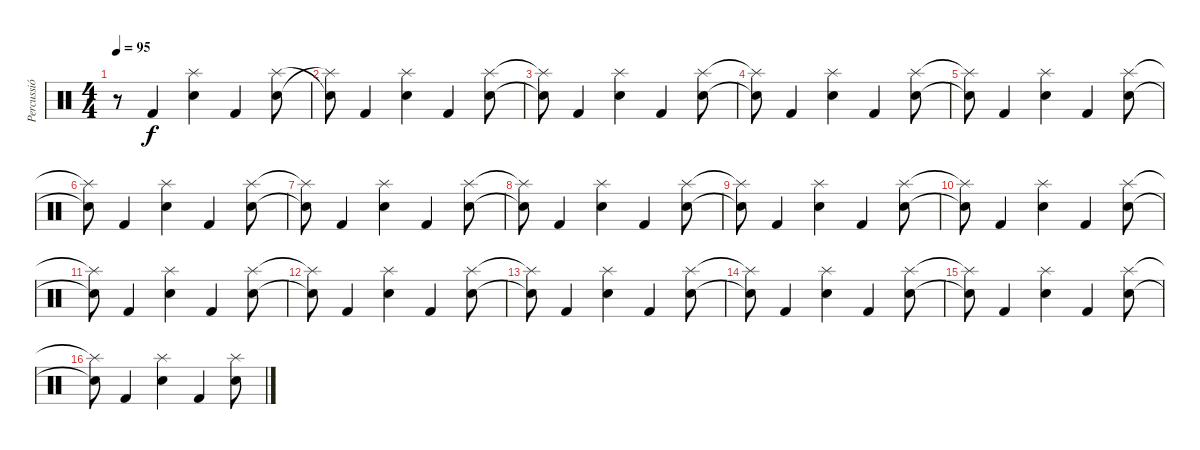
\track ("Percussió" "Percussió") {instrument percussion}
\staff {score}
\articulation defaults
\ts (4 4)
\tempo 95
\clef neutral
\ks c
r.8{dy f} "Kick (hit) 2".4 ("Snare (hit) 2" "Splash (hit)").4 "Kick (hit) 2".4 ("Snare (hit) 2" "Splash (hit)").8 |
("Splash (hit)"{t} "Snare (hit) 2"{t}).8 "Kick (hit) 2".4 ("Snare (hit) 2" "Splash (hit)").4 "Kick (hit) 2".4 ("Splash (hit)" "Snare (hit) 2").8 |
("Splash (hit)"{t} "Snare (hit) 2"{t}).8 "Kick (hit) 2".4 ("Snare (hit) 2" "Splash (hit)").4 "Kick (hit) 2".4 ("Splash (hit)" "Snare (hit) 2").8 |
("Splash (hit)"{t} "Snare (hit) 2"{t}).8 "Kick (hit) 2".4 ("Snare (hit) 2" "Splash (hit)").4 "Kick (hit) 2".4 ("Splash (hit)" "Snare (hit) 2").8 |
("Splash (hit)"{t} "Snare (hit) 2"{t}).8 "Kick (hit) 2".4 ("Snare (hit) 2" "Splash (hit)").4 "Kick (hit) 2".4 ("Splash (hit)" "Snare (hit) 2").8 |
("Splash (hit)"{t} "Snare (hit) 2"{t}).8 "Kick (hit) 2".4 ("Snare (hit) 2" "Splash (hit)").4 "Kick (hit) 2".4 ("Splash (hit)" "Snare (hit) 2").8 |
("Splash (hit)"{t} "Snare (hit) 2"{t}).8 "Kick (hit) 2".4 ("Snare (hit) 2" "Splash (hit)").4 "Kick (hit) 2".4 ("Splash (hit)" "Snare (hit) 2").8 |
("Splash (hit)"{t} "Snare (hit) 2"{t}).8 "Kick (hit) 2".4 ("Snare (hit) 2" "Splash (hit)").4 "Kick (hit) 2".4 ("Splash (hit)" "Snare (hit) 2").8 |
("Splash (hit)"{t} "Snare (hit) 2"{t}).8 "Kick (hit) 2".4 ("Snare (hit) 2" "Splash (hit)").4 "Kick (hit) 2".4 ("Splash (hit)" "Snare (hit) 2").8 |
("Splash (hit)"{t} "Snare (hit) 2"{t}).8 "Kick (hit) 2".4 ("Snare (hit) 2" "Splash (hit)").4 "Kick (hit) 2".4 ("Splash (hit)" "Snare (hit) 2").8 |
("Splash (hit)"{t} "Snare (hit) 2"{t}).8 "Kick (hit) 2".4 ("Snare (hit) 2" "Splash (hit)").4 "Kick (hit) 2".4 ("Splash (hit)" "Snare (hit) 2").8 |
("Splash (hit)"{t} "Snare (hit) 2"{t}).8 "Kick (hit) 2".4 ("Snare (hit) 2" "Splash (hit)").4 "Kick (hit) 2".4 ("Splash (hit)" "Snare (hit) 2").8 |
("Splash (hit)"{t} "Snare (hit) 2"{t}).8 "Kick (hit) 2".4 ("Snare (hit) 2" "Splash (hit)").4 "Kick (hit) 2".4 ("Splash (hit)" "Snare (hit) 2").8 |
("Splash (hit)"{t} "Snare (hit) 2"{t}).8 "Kick (hit) 2".4 ("Snare (hit) 2" "Splash (hit)").4 "Kick (hit) 2".4 ("Splash (hit)" "Snare (hit) 2").8 |
("Splash (hit)"{t} "Snare (hit) 2"{t}).8 "Kick (hit) 2".4 ("Snare (hit) 2" "Splash (hit)").4 "Kick (hit) 2".4 ("Splash (hit)" "Snare (hit) 2").8 |
("Splash (hit)"{t} "Snare (hit) 2"{t}).8 "Kick (hit) 2".4 ("Snare (hit) 2" "Splash (hit)").4 "Kick (hit) 2".4 ("Splash (hit)" "Snare (hit) 2").8
